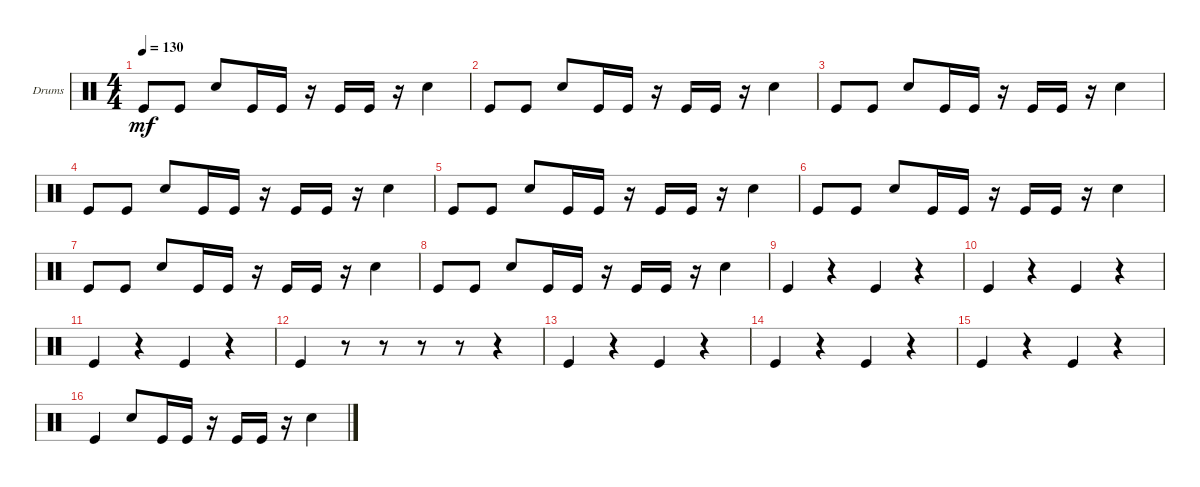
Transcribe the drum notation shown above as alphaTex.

\bracketExtendMode groupsimilarinstruments
\firstSystemTrackNameOrientation horizontal
\otherSystemsTrackNameOrientation horizontal
\track ("Drums" "Drums") {instrument percussion}
\staff {score}
\articulation defaults
\ts (4 4)
\tempo 130
\clef neutral
\ks c "Kick (hit)".8{dy mf} "Kick (hit)".8 "Snare (hit) 2".8 "Kick (hit)".16 "Kick (hit)".16
r.16 "Kick (hit)".16 "Kick (hit)".16 r.16 "Snare (hit) 2".4 |
"Kick (hit)".8 "Kick (hit)".8 "Snare (hit) 2".8 "Kick (hit)".16 "Kick (hit)".16 r.16 "Kick (hit)".16 "Kick (hit)".16 r.16 "Snare (hit) 2".4 |
"Kick (hit)".8 "Kick (hit)".8 "Snare (hit) 2".8 "Kick (hit)".16 "Kick (hit)".16 r.16 "Kick (hit)".16 "Kick (hit)".16 r.16 "Snare (hit) 2".4 |
"Kick (hit)".8 "Kick (hit)".8 "Snare (hit) 2".8 "Kick (hit)".16 "Kick (hit)".16 r.16 "Kick (hit)".16 "Kick (hit)".16 r.16 "Snare (hit) 2".4 |
"Kick (hit)".8 "Kick (hit)".8 "Snare (hit) 2".8 "Kick (hit)".16 "Kick (hit)".16 r.16 "Kick (hit)".16 "Kick (hit)".16 r.16 "Snare (hit) 2".4 |
"Kick (hit)".8 "Kick (hit)".8 "Snare (hit) 2".8 "Kick (hit)".16 "Kick (hit)".16 r.16 "Kick (hit)".16 "Kick (hit)".16 r.16 "Snare (hit) 2".4 |
"Kick (hit)".8 "Kick (hit)".8 "Snare (hit) 2".8 "Kick (hit)".16 "Kick (hit)".16 r.16 "Kick (hit)".16 "Kick (hit)".16 r.16 "Snare (hit) 2".4 |
"Kick (hit)".8 "Kick (hit)".8 "Snare (hit) 2".8 "Kick (hit)".16 "Kick (hit)".16 r.16 "Kick (hit)".16 "Kick (hit)".16 r.16 "Snare (hit) 2".4 |
"Kick (hit)".4 r.4 "Kick (hit)".4 r.4 |
"Kick (hit)".4 r.4 "Kick (hit)".4 r.4 |
"Kick (hit)".4 r.4 "Kick (hit)".4 r.4 |
"Kick (hit)".4 r.8 r.8 r.8 r.8 r.4 |
"Kick (hit)".4 r.4 "Kick (hit)".4 r.4 |
"Kick (hit)".4 r.4 "Kick (hit)".4 r.4 |
"Kick (hit)".4 r.4 "Kick (hit)".4 r.4 |
"Kick (hit)".4 "Snare (hit) 2".8 "Kick (hit)".16 "Kick (hit)".16 r.16 "Kick (hit)".16 "Kick (hit)".16 r.16 "Snare (hit) 2".4
